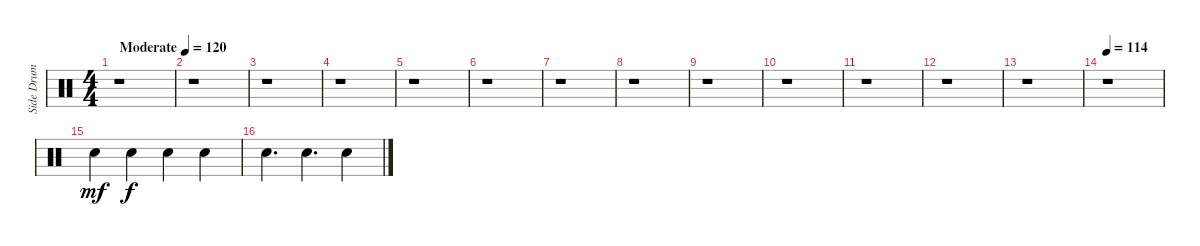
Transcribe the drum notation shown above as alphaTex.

\track ("Side Drum" "Side Drum") {instrument percussion}
\staff {score}
\articulation defaults
\ts (4 4)
\tempo (120 "Moderate")
\clef neutral
\ks c
r.1{dy mf} |
r.1 |
r.1 |
r.1 |
r.1 |
r.1 |
r.1 |
r.1 |
r.1 |
r.1 |
r.1 |
r.1 |
r.1 |
\tempo 114
r.1 |
"Snare (hit) 2".4 "Snare (hit) 2".4{dy f} "Snare (hit) 2".4 "Snare (hit) 2".4 |
"Snare (hit) 2".4{d} "Snare (hit) 2".4{d} "Snare (hit) 2".4
